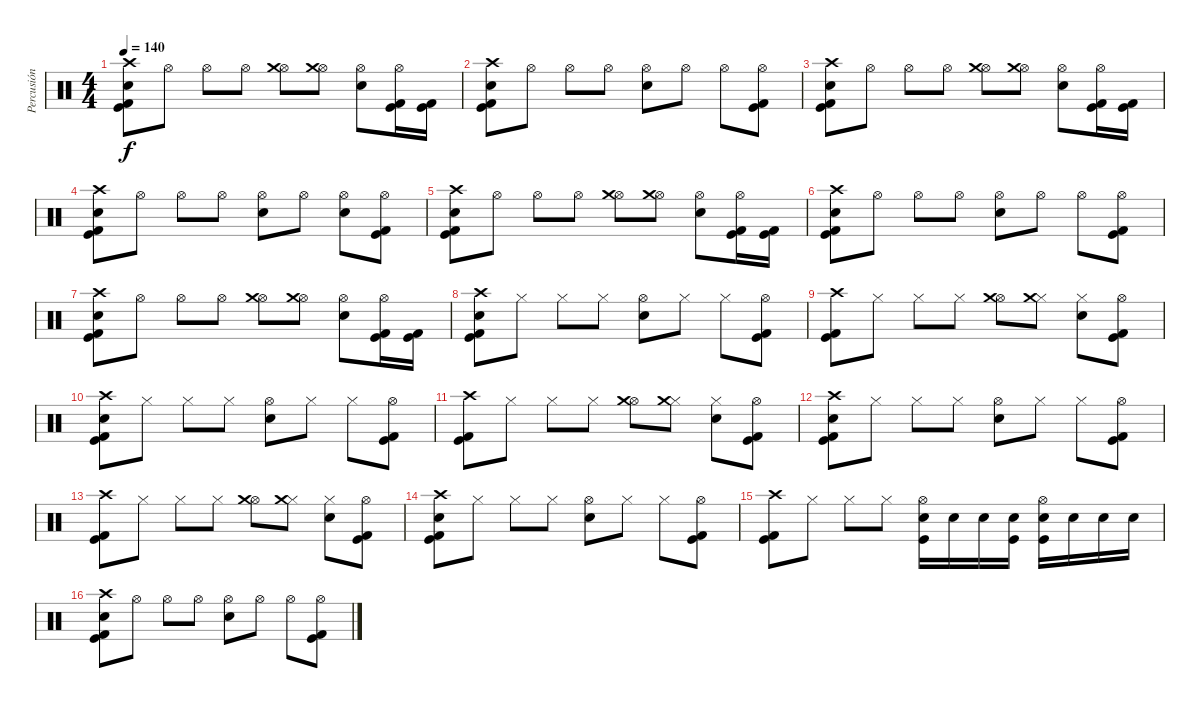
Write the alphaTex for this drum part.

\track ("Percusión" "Percusión") {instrument percussion}
\staff {score}
\articulation defaults
\ts (4 4)
\tempo 140
\clef neutral
\ks c
("Crash high (hit)" "Electric Snare (hit)" "Kick (hit)" "Kick (hit) 2").8{dy f} "Hi-Hat (open)".8 "Hi-Hat (open)".8 "Hi-Hat (open)".8 ("Hi-Hat (open)" "Crash medium (hit)").8 ("Hi-Hat (open)" "Crash medium (hit)").8 ("Hi-Hat (open)" "Electric Snare (hit)").8 ("Hi-Hat (open)" "Kick (hit) 2" "Kick (hit)").16 ("Kick (hit) 2" "Kick (hit)").16 |
("Crash high (hit)" "Electric Snare (hit)" "Kick (hit)" "Kick (hit) 2").8 "Hi-Hat (open)".8 "Hi-Hat (open)".8 "Hi-Hat (open)".8 ("Hi-Hat (open)" "Electric Snare (hit)").8 "Hi-Hat (open)".8 "Hi-Hat (open)".8 ("Hi-Hat (open)" "Kick (hit) 2" "Kick (hit)").8 |
("Crash high (hit)" "Electric Snare (hit)" "Kick (hit)" "Kick (hit) 2").8 "Hi-Hat (open)".8 "Hi-Hat (open)".8 "Hi-Hat (open)".8 ("Hi-Hat (open)" "Crash medium (hit)").8 ("Hi-Hat (open)" "Crash medium (hit)").8 ("Hi-Hat (open)" "Electric Snare (hit)").8 ("Hi-Hat (open)" "Kick (hit) 2" "Kick (hit)").16 ("Kick (hit) 2" "Kick (hit)").16 |
("Crash high (hit)" "Electric Snare (hit)" "Kick (hit)" "Kick (hit) 2").8 "Hi-Hat (open)".8 "Hi-Hat (open)".8 "Hi-Hat (open)".8 ("Hi-Hat (open)" "Electric Snare (hit)").8 "Hi-Hat (open)".8 ("Hi-Hat (open)" "Electric Snare (hit)").8 ("Hi-Hat (open)" "Kick (hit) 2" "Kick (hit)").8 |
("Crash high (hit)" "Electric Snare (hit)" "Kick (hit)" "Kick (hit) 2").8 "Hi-Hat (open)".8 "Hi-Hat (open)".8 "Hi-Hat (open)".8 ("Hi-Hat (open)" "Crash medium (hit)").8 ("Hi-Hat (open)" "Crash medium (hit)").8 ("Hi-Hat (open)" "Electric Snare (hit)").8 ("Hi-Hat (open)" "Kick (hit) 2" "Kick (hit)").16 ("Kick (hit) 2" "Kick (hit)").16 |
("Crash high (hit)" "Electric Snare (hit)" "Kick (hit)" "Kick (hit) 2").8 "Hi-Hat (open)".8 "Hi-Hat (open)".8 "Hi-Hat (open)".8 ("Hi-Hat (open)" "Electric Snare (hit)").8 "Hi-Hat (open)".8 "Hi-Hat (open)".8 ("Hi-Hat (open)" "Kick (hit) 2" "Kick (hit)").8 |
("Crash high (hit)" "Electric Snare (hit)" "Kick (hit)" "Kick (hit) 2").8 "Hi-Hat (open)".8 "Hi-Hat (open)".8 "Hi-Hat (open)".8 ("Hi-Hat (open)" "Crash medium (hit)").8 ("Hi-Hat (open)" "Crash medium (hit)").8 ("Hi-Hat (open)" "Electric Snare (hit)").8 ("Hi-Hat (open)" "Kick (hit) 2" "Kick (hit)").16 ("Kick (hit) 2" "Kick (hit)").16 |
("Crash high (hit)" "Electric Snare (hit)" "Kick (hit)" "Kick (hit) 2").8 "Hi-Hat (closed)".8 "Hi-Hat (closed)".8 "Hi-Hat (closed)".8 ("Hi-Hat (open)" "Electric Snare (hit)").8 "Hi-Hat (closed)".8 "Hi-Hat (closed)".8 ("Hi-Hat (open)" "Kick (hit) 2" "Kick (hit)").8 |
("Crash high (hit)" "Kick (hit)" "Kick (hit) 2").8 "Hi-Hat (closed)".8 "Hi-Hat (closed)".8 "Hi-Hat (closed)".8 ("Hi-Hat (open)" "Crash medium (hit)").8 ("Hi-Hat (closed)" "Crash medium (hit)").8 ("Hi-Hat (closed)" "Electric Snare (hit)").8 ("Hi-Hat (open)" "Kick (hit) 2" "Kick (hit)").8 |
("Crash high (hit)" "Electric Snare (hit)" "Kick (hit)" "Kick (hit) 2").8 "Hi-Hat (closed)".8 "Hi-Hat (closed)".8 "Hi-Hat (closed)".8 ("Hi-Hat (open)" "Electric Snare (hit)").8 "Hi-Hat (closed)".8 "Hi-Hat (closed)".8 ("Hi-Hat (open)" "Kick (hit) 2" "Kick (hit)").8 |
("Crash high (hit)" "Kick (hit)" "Kick (hit) 2").8 "Hi-Hat (closed)".8 "Hi-Hat (closed)".8 "Hi-Hat (closed)".8 ("Hi-Hat (open)" "Crash medium (hit)").8 ("Hi-Hat (closed)" "Crash medium (hit)").8 ("Hi-Hat (closed)" "Electric Snare (hit)").8 ("Hi-Hat (open)" "Kick (hit) 2" "Kick (hit)").8 |
("Crash high (hit)" "Electric Snare (hit)" "Kick (hit)" "Kick (hit) 2").8 "Hi-Hat (closed)".8 "Hi-Hat (closed)".8 "Hi-Hat (closed)".8 ("Hi-Hat (open)" "Electric Snare (hit)").8 "Hi-Hat (closed)".8 "Hi-Hat (closed)".8 ("Hi-Hat (open)" "Kick (hit) 2" "Kick (hit)").8 |
("Crash high (hit)" "Kick (hit)" "Kick (hit) 2").8 "Hi-Hat (closed)".8 "Hi-Hat (closed)".8 "Hi-Hat (closed)".8 ("Hi-Hat (open)" "Crash medium (hit)").8 ("Hi-Hat (closed)" "Crash medium (hit)").8 ("Hi-Hat (closed)" "Electric Snare (hit)").8 ("Hi-Hat (open)" "Kick (hit) 2" "Kick (hit)").8 |
("Crash high (hit)" "Electric Snare (hit)" "Kick (hit)" "Kick (hit) 2").8 "Hi-Hat (closed)".8 "Hi-Hat (closed)".8 "Hi-Hat (closed)".8 ("Hi-Hat (open)" "Electric Snare (hit)").8 "Hi-Hat (closed)".8 "Hi-Hat (closed)".8 ("Hi-Hat (open)" "Kick (hit) 2" "Kick (hit)").8 |
("Crash high (hit)" "Kick (hit)" "Kick (hit) 2").8 "Hi-Hat (closed)".8 "Hi-Hat (closed)".8 "Hi-Hat (closed)".8 ("Hi-Hat (open)" "Electric Snare (hit)" "Kick (hit)").16 "Electric Snare (hit)".16 "Electric Snare (hit)".16 ("Electric Snare (hit)" "Kick (hit)").16 ("Hi-Hat (open)" "Electric Snare (hit)" "Kick (hit)").16 "Electric Snare (hit)".16 "Electric Snare (hit)".16 "Electric Snare (hit)".16 |
("Crash high (hit)" "Electric Snare (hit)" "Kick (hit)" "Kick (hit) 2").8 "Hi-Hat (open)".8 "Hi-Hat (open)".8 "Hi-Hat (open)".8 ("Hi-Hat (open)" "Electric Snare (hit)").8 "Hi-Hat (open)".8 "Hi-Hat (open)".8 ("Hi-Hat (open)" "Kick (hit) 2" "Kick (hit)").8
